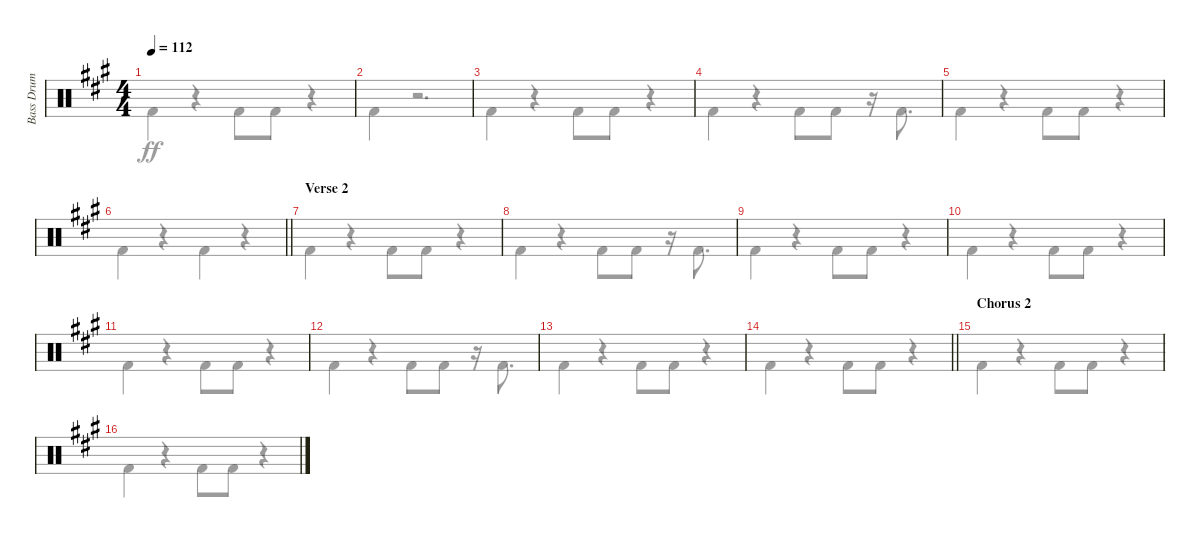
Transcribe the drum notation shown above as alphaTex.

\track ("Bass Drum" "Bass Drum") {instrument percussion}
\staff {score}
\articulation defaults
\voice
\ts (4 4)
\tempo 112
\clef neutral
\ks f#minor
|
|
|
|
|
\barLineRight lightlight
|
\section ("" "Verse 2")
|
|
|
|
|
|
|
\barLineRight lightlight
|
\section ("" "Chorus 2")
|
\voice
\clef neutral
\ks f#minor "Kick (hit) 2".4{dy ff}
r.4 "Kick (hit) 2".8 "Kick (hit) 2".8 r.4 |
"Kick (hit) 2".4 r.2{d} |
"Kick (hit) 2".4 r.4 "Kick (hit) 2".8 "Kick (hit) 2".8 r.4 |
"Kick (hit) 2".4 r.4 "Kick (hit) 2".8 "Kick (hit) 2".8 r.16 "Kick (hit) 2".8{d} |
"Kick (hit) 2".4 r.4 "Kick (hit) 2".8 "Kick (hit) 2".8 r.4 |
\barLineRight lightlight "Kick (hit) 2".4
r.4 "Kick (hit) 2".4 r.4 |
"Kick (hit) 2".4 r.4 "Kick (hit) 2".8 "Kick (hit) 2".8 r.4 |
"Kick (hit) 2".4 r.4 "Kick (hit) 2".8 "Kick (hit) 2".8 r.16 "Kick (hit) 2".8{d} |
"Kick (hit) 2".4 r.4 "Kick (hit) 2".8 "Kick (hit) 2".8 r.4 |
"Kick (hit) 2".4 r.4 "Kick (hit) 2".8 "Kick (hit) 2".8 r.4 |
"Kick (hit) 2".4 r.4 "Kick (hit) 2".8 "Kick (hit) 2".8 r.4 |
"Kick (hit) 2".4 r.4 "Kick (hit) 2".8 "Kick (hit) 2".8 r.16 "Kick (hit) 2".8{d} |
"Kick (hit) 2".4 r.4 "Kick (hit) 2".8 "Kick (hit) 2".8 r.4 |
\barLineRight lightlight "Kick (hit) 2".4
r.4 "Kick (hit) 2".8 "Kick (hit) 2".8 r.4 |
"Kick (hit) 2".4 r.4 "Kick (hit) 2".8 "Kick (hit) 2".8 r.4 |
"Kick (hit) 2".4 r.4 "Kick (hit) 2".8 "Kick (hit) 2".8 r.4
